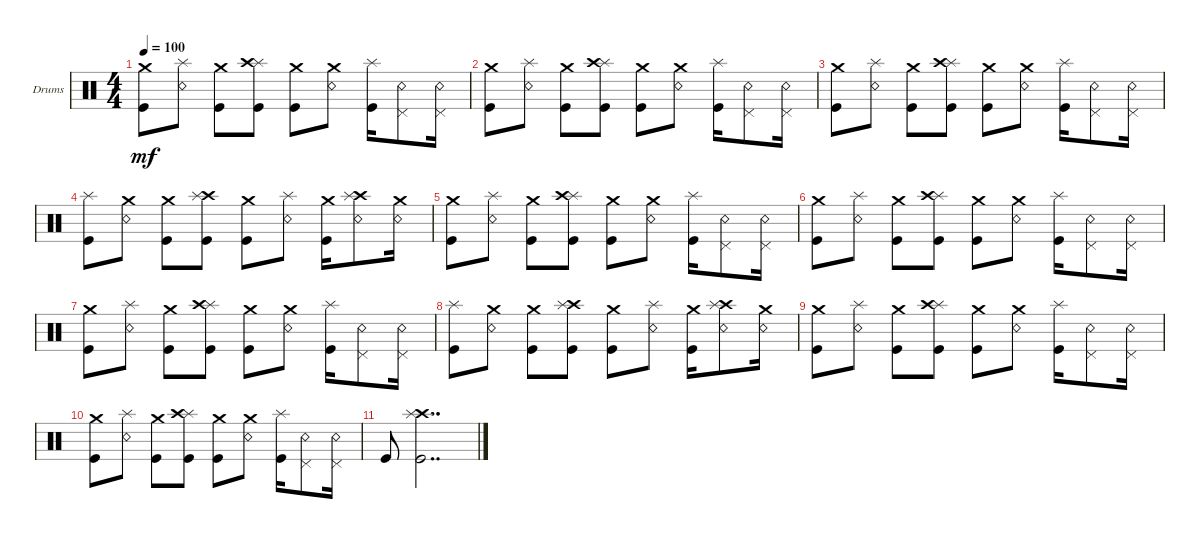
\defaultSystemsLayout 4
\bracketExtendMode groupsimilarinstruments
\firstSystemTrackNameOrientation horizontal
\otherSystemsTrackNameOrientation horizontal
\track ("Bateria" "Drums") {multiBarRest instrument percussion}
\staff {score}
\articulation defaults
\ts (4 4)
\tempo 100
\clef neutral
\ks c
("Kick (hit)" "Crash medium (hit)").8{dy mf} ("Snare (rim shot)" "Splash (hit)").8 ("Kick (hit)" "Crash medium (hit)").8 ("Splash (hit)" "Kick (hit)" "Crash high (hit)").8 ("Kick (hit)" "Crash medium (hit)").8 ("Snare (rim shot)" "Crash medium (hit)").8 ("Kick (hit)" "Splash (hit)").16 ("Snare (rim shot)" "Pedal Hi-Hat (hit)").8 ("Snare (rim shot)" "Pedal Hi-Hat (hit)").16 |
("Kick (hit)" "Crash medium (hit)").8 ("Snare (rim shot)" "Splash (hit)").8 ("Kick (hit)" "Crash medium (hit)").8 ("Splash (hit)" "Kick (hit)" "Crash high (hit)").8 ("Kick (hit)" "Crash medium (hit)").8 ("Snare (rim shot)" "Crash medium (hit)").8 ("Kick (hit)" "Splash (hit)").16 ("Snare (rim shot)" "Pedal Hi-Hat (hit)").8 ("Snare (rim shot)" "Pedal Hi-Hat (hit)").16 |
("Kick (hit)" "Crash medium (hit)").8 ("Snare (rim shot)" "Splash (hit)").8 ("Kick (hit)" "Crash medium (hit)").8 ("Splash (hit)" "Kick (hit)" "Crash high (hit)").8 ("Kick (hit)" "Crash medium (hit)").8 ("Snare (rim shot)" "Crash medium (hit)").8 ("Kick (hit)" "Splash (hit)").16 ("Snare (rim shot)" "Pedal Hi-Hat (hit)").8 ("Snare (rim shot)" "Pedal Hi-Hat (hit)").16 |
("Kick (hit)" "Splash (hit)").8 ("Snare (rim shot)" "Crash medium (hit)").8 ("Kick (hit)" "Crash medium (hit)").8 ("Kick (hit)" "Crash high (hit)" "Splash (hit)").8 ("Kick (hit)" "Crash medium (hit)").8 ("Snare (rim shot)" "Splash (hit)").8 ("Kick (hit)" "Crash medium (hit)").16 ("Snare (rim shot)" "Crash high (hit)" "Splash (hit)").8 ("Snare (rim shot)" "Crash medium (hit)").16 |
("Kick (hit)" "Crash medium (hit)").8 ("Snare (rim shot)" "Splash (hit)").8 ("Kick (hit)" "Crash medium (hit)").8 ("Splash (hit)" "Kick (hit)" "Crash high (hit)").8 ("Kick (hit)" "Crash medium (hit)").8 ("Snare (rim shot)" "Crash medium (hit)").8 ("Kick (hit)" "Splash (hit)").16 ("Snare (rim shot)" "Pedal Hi-Hat (hit)").8 ("Snare (rim shot)" "Pedal Hi-Hat (hit)").16 |
("Kick (hit)" "Crash medium (hit)").8 ("Snare (rim shot)" "Splash (hit)").8 ("Kick (hit)" "Crash medium (hit)").8 ("Splash (hit)" "Kick (hit)" "Crash high (hit)").8 ("Kick (hit)" "Crash medium (hit)").8 ("Snare (rim shot)" "Crash medium (hit)").8 ("Kick (hit)" "Splash (hit)").16 ("Snare (rim shot)" "Pedal Hi-Hat (hit)").8 ("Snare (rim shot)" "Pedal Hi-Hat (hit)").16 |
("Kick (hit)" "Crash medium (hit)").8 ("Snare (rim shot)" "Splash (hit)").8 ("Kick (hit)" "Crash medium (hit)").8 ("Splash (hit)" "Kick (hit)" "Crash high (hit)").8 ("Kick (hit)" "Crash medium (hit)").8 ("Snare (rim shot)" "Crash medium (hit)").8 ("Kick (hit)" "Splash (hit)").16 ("Snare (rim shot)" "Pedal Hi-Hat (hit)").8 ("Snare (rim shot)" "Pedal Hi-Hat (hit)").16 |
("Kick (hit)" "Splash (hit)").8 ("Snare (rim shot)" "Crash medium (hit)").8 ("Kick (hit)" "Crash medium (hit)").8 ("Kick (hit)" "Crash high (hit)" "Splash (hit)").8 ("Kick (hit)" "Crash medium (hit)").8 ("Snare (rim shot)" "Splash (hit)").8 ("Kick (hit)" "Crash medium (hit)").16 ("Snare (rim shot)" "Crash high (hit)" "Splash (hit)").8 ("Snare (rim shot)" "Crash medium (hit)").16 |
("Kick (hit)" "Crash medium (hit)").8 ("Snare (rim shot)" "Splash (hit)").8 ("Kick (hit)" "Crash medium (hit)").8 ("Splash (hit)" "Kick (hit)" "Crash high (hit)").8 ("Kick (hit)" "Crash medium (hit)").8 ("Snare (rim shot)" "Crash medium (hit)").8 ("Kick (hit)" "Splash (hit)").16 ("Snare (rim shot)" "Pedal Hi-Hat (hit)").8 ("Snare (rim shot)" "Pedal Hi-Hat (hit)").16 |
("Kick (hit)" "Crash medium (hit)").8 ("Snare (rim shot)" "Splash (hit)").8 ("Kick (hit)" "Crash medium (hit)").8 ("Splash (hit)" "Kick (hit)" "Crash high (hit)").8 ("Kick (hit)" "Crash medium (hit)").8 ("Snare (rim shot)" "Crash medium (hit)").8 ("Kick (hit)" "Splash (hit)").16 ("Snare (rim shot)" "Pedal Hi-Hat (hit)").8 ("Snare (rim shot)" "Pedal Hi-Hat (hit)").16 |
"Kick (hit)".8 ("Crash high (hit)" "Splash (hit)" "Kick (hit)").2{dd}
